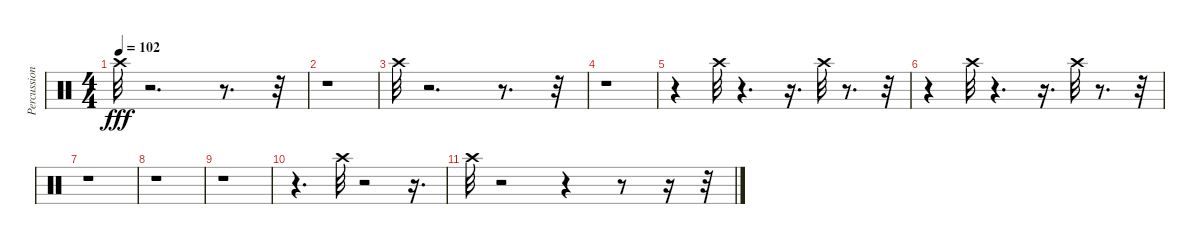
\track ("Percussion" "Percussion") {instrument percussion}
\staff {score}
\articulation defaults
\ts (4 4)
\tempo 102
\clef neutral
\ks c "Crash high (hit)".32{dy fff}
r.2{d} r.8{d} r.32 |
r.1 |
"Crash high (hit)".32 r.2{d} r.8{d} r.32 |
r.1 |
r.4 "Crash high (hit)".32 r.4{d} r.16{d} "Crash high (hit)".32 r.8{d} r.32 |
r.4 "Crash high (hit)".32 r.4{d} r.16{d} "Crash high (hit)".32 r.8{d} r.32 |
r.1 |
r.1 |
r.1 |
r.4{d} "Crash high (hit)".32 r.2 r.16{d} |
"Crash high (hit)".32 r.2 r.4 r.8 r.16 r.32
